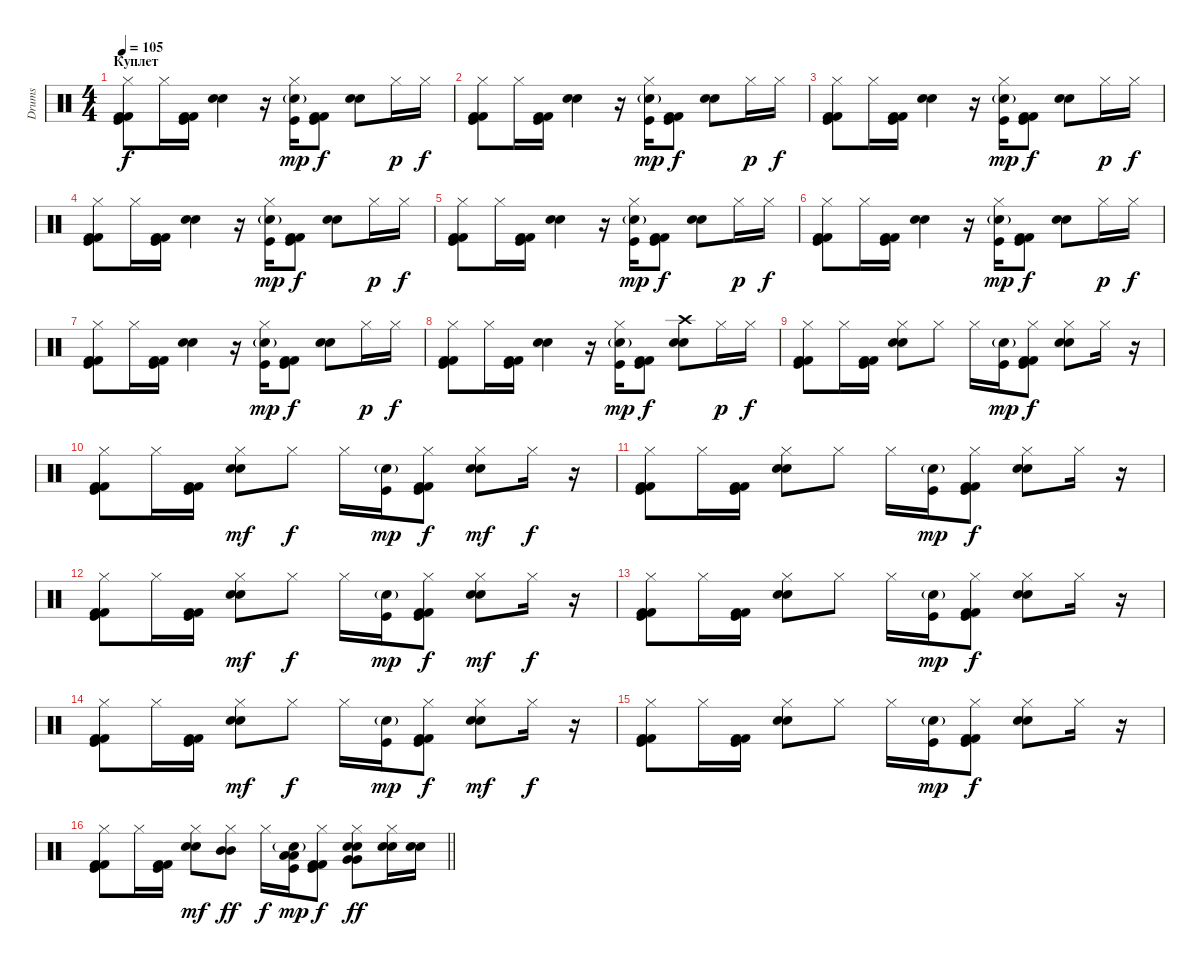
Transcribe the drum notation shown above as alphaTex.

\track ("Drums" "Drums") {instrument percussion}
\staff {score}
\articulation defaults
\ts (4 4)
\section ("" "Куплет")
\tempo 105
\clef neutral
\ks c
("Hi-Hat (closed)" "Kick (hit) 2" "Kick (hit) 2" "Kick (hit)").8{dy f} "Hi-Hat (closed)".16 ("Kick (hit) 2" "Kick (hit) 2" "Kick (hit)").16 ("Electric Snare (hit)" "Snare (hit) 2").4 r.16 ("Hi-Hat (closed)" "Snare (hit) 2"{g} "Kick (hit)").16{dy mp} ("Kick (hit) 2" "Kick (hit) 2" "Kick (hit)").8{dy f} ("Electric Snare (hit)" "Snare (hit) 2").8 "Hi-Hat (closed)".16{dy p} "Hi-Hat (closed)".16{dy f} |
("Hi-Hat (closed)" "Kick (hit) 2" "Kick (hit) 2" "Kick (hit)").8 "Hi-Hat (closed)".16 ("Kick (hit) 2" "Kick (hit) 2" "Kick (hit)").16 ("Electric Snare (hit)" "Snare (hit) 2").4 r.16 ("Hi-Hat (closed)" "Snare (hit) 2"{g} "Kick (hit)").16{dy mp} ("Kick (hit) 2" "Kick (hit) 2" "Kick (hit)").8{dy f} ("Electric Snare (hit)" "Snare (hit) 2").8 "Hi-Hat (closed)".16{dy p} "Hi-Hat (closed)".16{dy f} |
("Hi-Hat (closed)" "Kick (hit) 2" "Kick (hit) 2" "Kick (hit)").8 "Hi-Hat (closed)".16 ("Kick (hit) 2" "Kick (hit) 2" "Kick (hit)").16 ("Electric Snare (hit)" "Snare (hit) 2").4 r.16 ("Hi-Hat (closed)" "Snare (hit) 2"{g} "Kick (hit)").16{dy mp} ("Kick (hit) 2" "Kick (hit) 2" "Kick (hit)").8{dy f} ("Electric Snare (hit)" "Snare (hit) 2").8 "Hi-Hat (closed)".16{dy p} "Hi-Hat (closed)".16{dy f} |
("Hi-Hat (closed)" "Kick (hit) 2" "Kick (hit) 2" "Kick (hit)").8 "Hi-Hat (closed)".16 ("Kick (hit) 2" "Kick (hit) 2" "Kick (hit)").16 ("Electric Snare (hit)" "Snare (hit) 2").4 r.16 ("Hi-Hat (closed)" "Snare (hit) 2"{g} "Kick (hit)").16{dy mp} ("Kick (hit) 2" "Kick (hit) 2" "Kick (hit)").8{dy f} ("Electric Snare (hit)" "Snare (hit) 2").8 "Hi-Hat (closed)".16{dy p} "Hi-Hat (closed)".16{dy f} |
("Hi-Hat (closed)" "Kick (hit) 2" "Kick (hit) 2" "Kick (hit)").8 "Hi-Hat (closed)".16 ("Kick (hit) 2" "Kick (hit) 2" "Kick (hit)").16 ("Electric Snare (hit)" "Snare (hit) 2").4 r.16 ("Hi-Hat (closed)" "Snare (hit) 2"{g} "Kick (hit)").16{dy mp} ("Kick (hit) 2" "Kick (hit) 2" "Kick (hit)").8{dy f} ("Electric Snare (hit)" "Snare (hit) 2").8 "Hi-Hat (closed)".16{dy p} "Hi-Hat (closed)".16{dy f} |
("Hi-Hat (closed)" "Kick (hit) 2" "Kick (hit) 2" "Kick (hit)").8 "Hi-Hat (closed)".16 ("Kick (hit) 2" "Kick (hit) 2" "Kick (hit)").16 ("Electric Snare (hit)" "Snare (hit) 2").4 r.16 ("Hi-Hat (closed)" "Snare (hit) 2"{g} "Kick (hit)").16{dy mp} ("Kick (hit) 2" "Kick (hit) 2" "Kick (hit)").8{dy f} ("Electric Snare (hit)" "Snare (hit) 2").8 "Hi-Hat (closed)".16{dy p} "Hi-Hat (closed)".16{dy f} |
("Hi-Hat (closed)" "Kick (hit) 2" "Kick (hit) 2" "Kick (hit)").8 "Hi-Hat (closed)".16 ("Kick (hit) 2" "Kick (hit) 2" "Kick (hit)").16 ("Electric Snare (hit)" "Snare (hit) 2").4 r.16 ("Hi-Hat (closed)" "Snare (hit) 2"{g} "Kick (hit)").16{dy mp} ("Kick (hit) 2" "Kick (hit) 2" "Kick (hit)").8{dy f} ("Electric Snare (hit)" "Snare (hit) 2").8 "Hi-Hat (closed)".16{dy p} "Hi-Hat (closed)".16{dy f} |
("Hi-Hat (closed)" "Kick (hit) 2" "Kick (hit) 2" "Kick (hit)").8 "Hi-Hat (closed)".16 ("Kick (hit) 2" "Kick (hit) 2" "Kick (hit)").16 ("Electric Snare (hit)" "Snare (hit) 2").4 r.16 ("Hi-Hat (closed)" "Snare (hit) 2"{g} "Kick (hit)").16{dy mp} ("Kick (hit) 2" "Kick (hit) 2" "Kick (hit)").8{dy f} ("Crash high (hit)" "Electric Snare (hit)" "Snare (hit) 2").8 "Hi-Hat (closed)".16{dy p} "Hi-Hat (closed)".16{dy f} |
("Hi-Hat (closed)" "Kick (hit) 2" "Kick (hit) 2" "Kick (hit)").8 "Hi-Hat (closed)".16 ("Kick (hit) 2" "Kick (hit) 2" "Kick (hit)").16 ("Hi-Hat (closed)" "Electric Snare (hit)" "Snare (hit) 2").8 "Hi-Hat (closed)".8 "Hi-Hat (closed)".16 ("Snare (hit) 2"{g} "Kick (hit)").16{dy mp} ("Hi-Hat (closed)" "Kick (hit) 2" "Kick (hit) 2" "Kick (hit)").8{dy f} ("Hi-Hat (closed)" "Electric Snare (hit)" "Snare (hit) 2").8 "Hi-Hat (closed)".16 r.16 |
("Hi-Hat (closed)" "Kick (hit) 2" "Kick (hit) 2" "Kick (hit)").8 "Hi-Hat (closed)".16 ("Kick (hit) 2" "Kick (hit) 2" "Kick (hit)").16 ("Hi-Hat (closed)" "Electric Snare (hit)" "Snare (hit) 2").8{dy mf} "Hi-Hat (closed)".8{dy f} "Hi-Hat (closed)".16 ("Snare (hit) 2"{g} "Kick (hit)").16{dy mp} ("Hi-Hat (closed)" "Kick (hit) 2" "Kick (hit) 2" "Kick (hit)").8{dy f} ("Hi-Hat (closed)" "Electric Snare (hit)" "Snare (hit) 2").8{dy mf} "Hi-Hat (closed)".16{dy f} r.16 |
("Hi-Hat (closed)" "Kick (hit) 2" "Kick (hit) 2" "Kick (hit)").8 "Hi-Hat (closed)".16 ("Kick (hit) 2" "Kick (hit) 2" "Kick (hit)").16 ("Hi-Hat (closed)" "Electric Snare (hit)" "Snare (hit) 2").8 "Hi-Hat (closed)".8 "Hi-Hat (closed)".16 ("Snare (hit) 2"{g} "Kick (hit)").16{dy mp} ("Hi-Hat (closed)" "Kick (hit) 2" "Kick (hit) 2" "Kick (hit)").8{dy f} ("Hi-Hat (closed)" "Electric Snare (hit)" "Snare (hit) 2").8 "Hi-Hat (closed)".16 r.16 |
("Hi-Hat (closed)" "Kick (hit) 2" "Kick (hit) 2" "Kick (hit)").8 "Hi-Hat (closed)".16 ("Kick (hit) 2" "Kick (hit) 2" "Kick (hit)").16 ("Hi-Hat (closed)" "Electric Snare (hit)" "Snare (hit) 2").8{dy mf} "Hi-Hat (closed)".8{dy f} "Hi-Hat (closed)".16 ("Snare (hit) 2"{g} "Kick (hit)").16{dy mp} ("Hi-Hat (closed)" "Kick (hit) 2" "Kick (hit) 2" "Kick (hit)").8{dy f} ("Hi-Hat (closed)" "Electric Snare (hit)" "Snare (hit) 2").8{dy mf} "Hi-Hat (closed)".16{dy f} r.16 |
("Hi-Hat (closed)" "Kick (hit) 2" "Kick (hit) 2" "Kick (hit)").8 "Hi-Hat (closed)".16 ("Kick (hit) 2" "Kick (hit) 2" "Kick (hit)").16 ("Hi-Hat (closed)" "Electric Snare (hit)" "Snare (hit) 2").8 "Hi-Hat (closed)".8 "Hi-Hat (closed)".16 ("Snare (hit) 2"{g} "Kick (hit)").16{dy mp} ("Hi-Hat (closed)" "Kick (hit) 2" "Kick (hit) 2" "Kick (hit)").8{dy f} ("Hi-Hat (closed)" "Electric Snare (hit)" "Snare (hit) 2").8 "Hi-Hat (closed)".16 r.16 |
("Hi-Hat (closed)" "Kick (hit) 2" "Kick (hit) 2" "Kick (hit)").8 "Hi-Hat (closed)".16 ("Kick (hit) 2" "Kick (hit) 2" "Kick (hit)").16 ("Hi-Hat (closed)" "Electric Snare (hit)" "Snare (hit) 2").8{dy mf} "Hi-Hat (closed)".8{dy f} "Hi-Hat (closed)".16 ("Snare (hit) 2"{g} "Kick (hit)").16{dy mp} ("Hi-Hat (closed)" "Kick (hit) 2" "Kick (hit) 2" "Kick (hit)").8{dy f} ("Hi-Hat (closed)" "Electric Snare (hit)" "Snare (hit) 2").8{dy mf} "Hi-Hat (closed)".16{dy f} r.16 |
("Hi-Hat (closed)" "Kick (hit) 2" "Kick (hit) 2" "Kick (hit)").8 "Hi-Hat (closed)".16 ("Kick (hit) 2" "Kick (hit) 2" "Kick (hit)").16 ("Hi-Hat (closed)" "Electric Snare (hit)" "Snare (hit) 2").8 "Hi-Hat (closed)".8 "Hi-Hat (closed)".16 ("Snare (hit) 2"{g} "Kick (hit)").16{dy mp} ("Hi-Hat (closed)" "Kick (hit) 2" "Kick (hit) 2" "Kick (hit)").8{dy f} ("Hi-Hat (closed)" "Electric Snare (hit)" "Snare (hit) 2").8 "Hi-Hat (closed)".16 r.16 |
\barLineRight lightlight
("Hi-Hat (closed)" "Kick (hit) 2" "Kick (hit) 2" "Kick (hit)").8 "Hi-Hat (closed)".16 ("Kick (hit) 2" "Kick (hit) 2" "Kick (hit)").16 ("Hi-Hat (closed)" "Electric Snare (hit)" "Snare (hit) 2").8{dy mf} ("Hi-Hat (closed)" "Mid Tom (hit)" "Mid Tom (hit)").8{dy ff} "Hi-Hat (closed)".16{dy f} ("Low Tom (hit)" "Low Tom (hit)" "Snare (hit) 2"{g} "Kick (hit)").16{dy mp} ("Hi-Hat (closed)" "Kick (hit) 2" "Kick (hit) 2" "Kick (hit)").8{dy f} ("Hi-Hat (closed)" "Very Low Tom (hit)" "Electric Snare (hit)" "Electric Snare (hit)" "Very Low Tom (hit)").8{dy ff} ("Hi-Hat (closed)" "Electric Snare (hit)" "Electric Snare (hit)").16 ("Electric Snare (hit)" "Electric Snare (hit)").16
